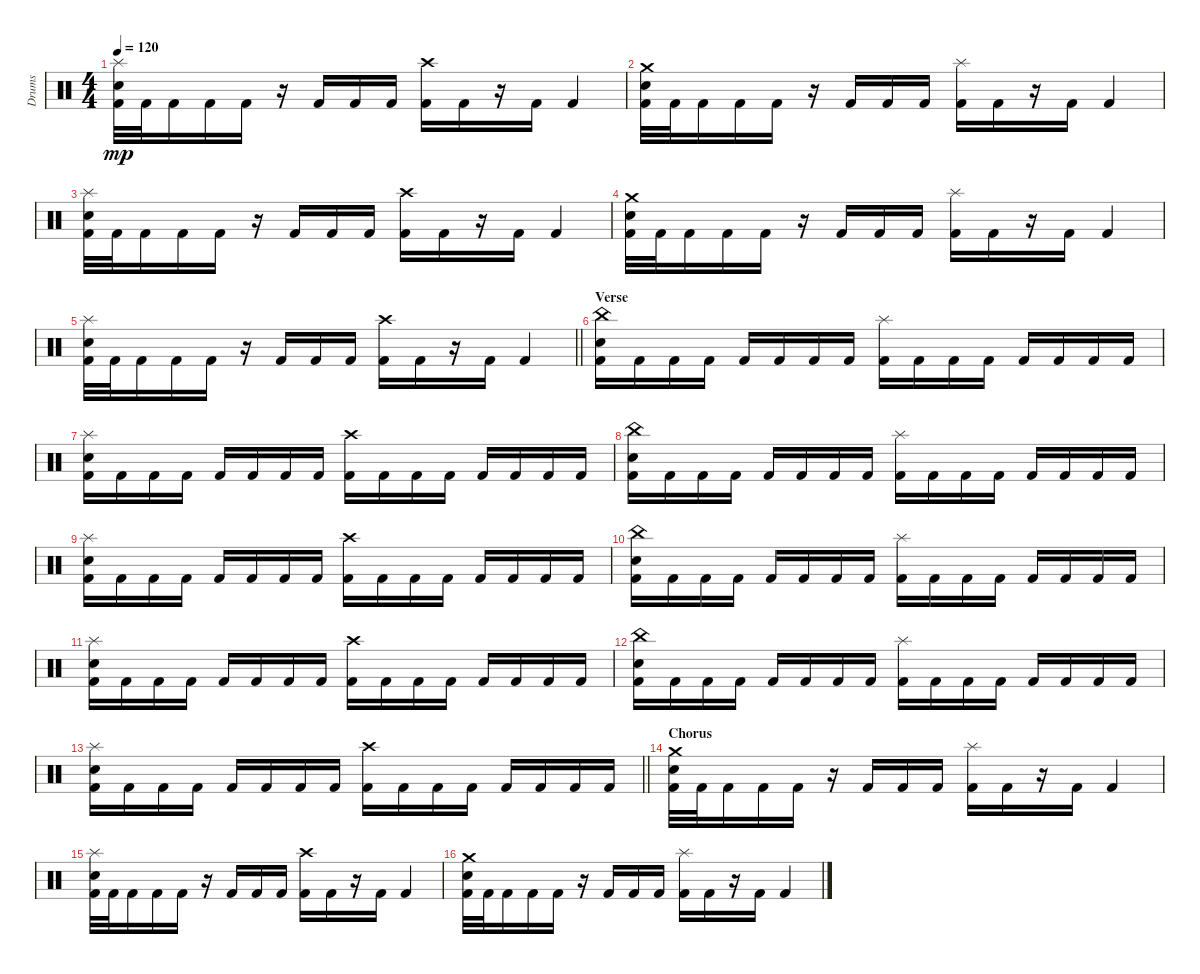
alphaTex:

\track ("Drums" "Drums") {instrument percussion}
\staff {score}
\articulation defaults
\ts (4 4)
\tempo 120
\clef neutral
\ks c
("Splash (hit)" "Electric Snare (hit)" "Kick (hit) 2").32{dy mp} "Kick (hit) 2".32 "Kick (hit) 2".16 "Kick (hit) 2".16 "Kick (hit) 2".16 r.16 "Kick (hit) 2".16 "Kick (hit) 2".16 "Kick (hit) 2".16 ("Crash high (hit)" "Kick (hit) 2").16 "Kick (hit) 2".16 r.16 "Kick (hit) 2".16 "Kick (hit) 2".4 |
("Crash medium (hit)" "Electric Snare (hit)" "Kick (hit) 2").32 "Kick (hit) 2".32 "Kick (hit) 2".16 "Kick (hit) 2".16 "Kick (hit) 2".16 r.16 "Kick (hit) 2".16 "Kick (hit) 2".16 "Kick (hit) 2".16 ("Splash (hit)" "Kick (hit) 2").16 "Kick (hit) 2".16 r.16 "Kick (hit) 2".16 "Kick (hit) 2".4 |
("Splash (hit)" "Electric Snare (hit)" "Kick (hit) 2").32 "Kick (hit) 2".32 "Kick (hit) 2".16 "Kick (hit) 2".16 "Kick (hit) 2".16 r.16 "Kick (hit) 2".16 "Kick (hit) 2".16 "Kick (hit) 2".16 ("Crash high (hit)" "Kick (hit) 2").16 "Kick (hit) 2".16 r.16 "Kick (hit) 2".16 "Kick (hit) 2".4 |
("Crash medium (hit)" "Electric Snare (hit)" "Kick (hit) 2").32 "Kick (hit) 2".32 "Kick (hit) 2".16 "Kick (hit) 2".16 "Kick (hit) 2".16 r.16 "Kick (hit) 2".16 "Kick (hit) 2".16 "Kick (hit) 2".16 ("Splash (hit)" "Kick (hit) 2").16 "Kick (hit) 2".16 r.16 "Kick (hit) 2".16 "Kick (hit) 2".4 |
\barLineRight lightlight
("Splash (hit)" "Electric Snare (hit)" "Kick (hit) 2").32 "Kick (hit) 2".32 "Kick (hit) 2".16 "Kick (hit) 2".16 "Kick (hit) 2".16 r.16 "Kick (hit) 2".16 "Kick (hit) 2".16 "Kick (hit) 2".16 ("Crash high (hit)" "Kick (hit) 2").16 "Kick (hit) 2".16 r.16 "Kick (hit) 2".16 "Kick (hit) 2".4 |
\section ("" "Verse")
("China (hit)" "Electric Snare (hit)" "Kick (hit) 2").16 "Kick (hit) 2".16 "Kick (hit) 2".16 "Kick (hit) 2".16 "Kick (hit) 2".16 "Kick (hit) 2".16 "Kick (hit) 2".16 "Kick (hit) 2".16 ("Splash (hit)" "Kick (hit) 2").16 "Kick (hit) 2".16 "Kick (hit) 2".16 "Kick (hit) 2".16 "Kick (hit) 2".16 "Kick (hit) 2".16 "Kick (hit) 2".16 "Kick (hit) 2".16 |
("Splash (hit)" "Electric Snare (hit)" "Kick (hit) 2").16 "Kick (hit) 2".16 "Kick (hit) 2".16 "Kick (hit) 2".16 "Kick (hit) 2".16 "Kick (hit) 2".16 "Kick (hit) 2".16 "Kick (hit) 2".16 ("Crash high (hit)" "Kick (hit) 2").16 "Kick (hit) 2".16 "Kick (hit) 2".16 "Kick (hit) 2".16 "Kick (hit) 2".16 "Kick (hit) 2".16 "Kick (hit) 2".16 "Kick (hit) 2".16 |
("China (hit)" "Electric Snare (hit)" "Kick (hit) 2").16 "Kick (hit) 2".16 "Kick (hit) 2".16 "Kick (hit) 2".16 "Kick (hit) 2".16 "Kick (hit) 2".16 "Kick (hit) 2".16 "Kick (hit) 2".16 ("Splash (hit)" "Kick (hit) 2").16 "Kick (hit) 2".16 "Kick (hit) 2".16 "Kick (hit) 2".16 "Kick (hit) 2".16 "Kick (hit) 2".16 "Kick (hit) 2".16 "Kick (hit) 2".16 |
("Splash (hit)" "Electric Snare (hit)" "Kick (hit) 2").16 "Kick (hit) 2".16 "Kick (hit) 2".16 "Kick (hit) 2".16 "Kick (hit) 2".16 "Kick (hit) 2".16 "Kick (hit) 2".16 "Kick (hit) 2".16 ("Crash high (hit)" "Kick (hit) 2").16 "Kick (hit) 2".16 "Kick (hit) 2".16 "Kick (hit) 2".16 "Kick (hit) 2".16 "Kick (hit) 2".16 "Kick (hit) 2".16 "Kick (hit) 2".16 |
("China (hit)" "Electric Snare (hit)" "Kick (hit) 2").16 "Kick (hit) 2".16 "Kick (hit) 2".16 "Kick (hit) 2".16 "Kick (hit) 2".16 "Kick (hit) 2".16 "Kick (hit) 2".16 "Kick (hit) 2".16 ("Splash (hit)" "Kick (hit) 2").16 "Kick (hit) 2".16 "Kick (hit) 2".16 "Kick (hit) 2".16 "Kick (hit) 2".16 "Kick (hit) 2".16 "Kick (hit) 2".16 "Kick (hit) 2".16 |
("Splash (hit)" "Electric Snare (hit)" "Kick (hit) 2").16 "Kick (hit) 2".16 "Kick (hit) 2".16 "Kick (hit) 2".16 "Kick (hit) 2".16 "Kick (hit) 2".16 "Kick (hit) 2".16 "Kick (hit) 2".16 ("Crash high (hit)" "Kick (hit) 2").16 "Kick (hit) 2".16 "Kick (hit) 2".16 "Kick (hit) 2".16 "Kick (hit) 2".16 "Kick (hit) 2".16 "Kick (hit) 2".16 "Kick (hit) 2".16 |
("China (hit)" "Electric Snare (hit)" "Kick (hit) 2").16 "Kick (hit) 2".16 "Kick (hit) 2".16 "Kick (hit) 2".16 "Kick (hit) 2".16 "Kick (hit) 2".16 "Kick (hit) 2".16 "Kick (hit) 2".16 ("Splash (hit)" "Kick (hit) 2").16 "Kick (hit) 2".16 "Kick (hit) 2".16 "Kick (hit) 2".16 "Kick (hit) 2".16 "Kick (hit) 2".16 "Kick (hit) 2".16 "Kick (hit) 2".16 |
\barLineRight lightlight
("Splash (hit)" "Electric Snare (hit)" "Kick (hit) 2").16 "Kick (hit) 2".16 "Kick (hit) 2".16 "Kick (hit) 2".16 "Kick (hit) 2".16 "Kick (hit) 2".16 "Kick (hit) 2".16 "Kick (hit) 2".16 ("Crash high (hit)" "Kick (hit) 2").16 "Kick (hit) 2".16 "Kick (hit) 2".16 "Kick (hit) 2".16 "Kick (hit) 2".16 "Kick (hit) 2".16 "Kick (hit) 2".16 "Kick (hit) 2".16 |
\section ("" "Chorus")
("Crash medium (hit)" "Electric Snare (hit)" "Kick (hit) 2").32 "Kick (hit) 2".32 "Kick (hit) 2".16 "Kick (hit) 2".16 "Kick (hit) 2".16 r.16 "Kick (hit) 2".16 "Kick (hit) 2".16 "Kick (hit) 2".16 ("Splash (hit)" "Kick (hit) 2").16 "Kick (hit) 2".16 r.16 "Kick (hit) 2".16 "Kick (hit) 2".4 |
("Splash (hit)" "Electric Snare (hit)" "Kick (hit) 2").32 "Kick (hit) 2".32 "Kick (hit) 2".16 "Kick (hit) 2".16 "Kick (hit) 2".16 r.16 "Kick (hit) 2".16 "Kick (hit) 2".16 "Kick (hit) 2".16 ("Crash high (hit)" "Kick (hit) 2").16 "Kick (hit) 2".16 r.16 "Kick (hit) 2".16 "Kick (hit) 2".4 |
("Crash medium (hit)" "Electric Snare (hit)" "Kick (hit) 2").32 "Kick (hit) 2".32 "Kick (hit) 2".16 "Kick (hit) 2".16 "Kick (hit) 2".16 r.16 "Kick (hit) 2".16 "Kick (hit) 2".16 "Kick (hit) 2".16 ("Splash (hit)" "Kick (hit) 2").16 "Kick (hit) 2".16 r.16 "Kick (hit) 2".16 "Kick (hit) 2".4
